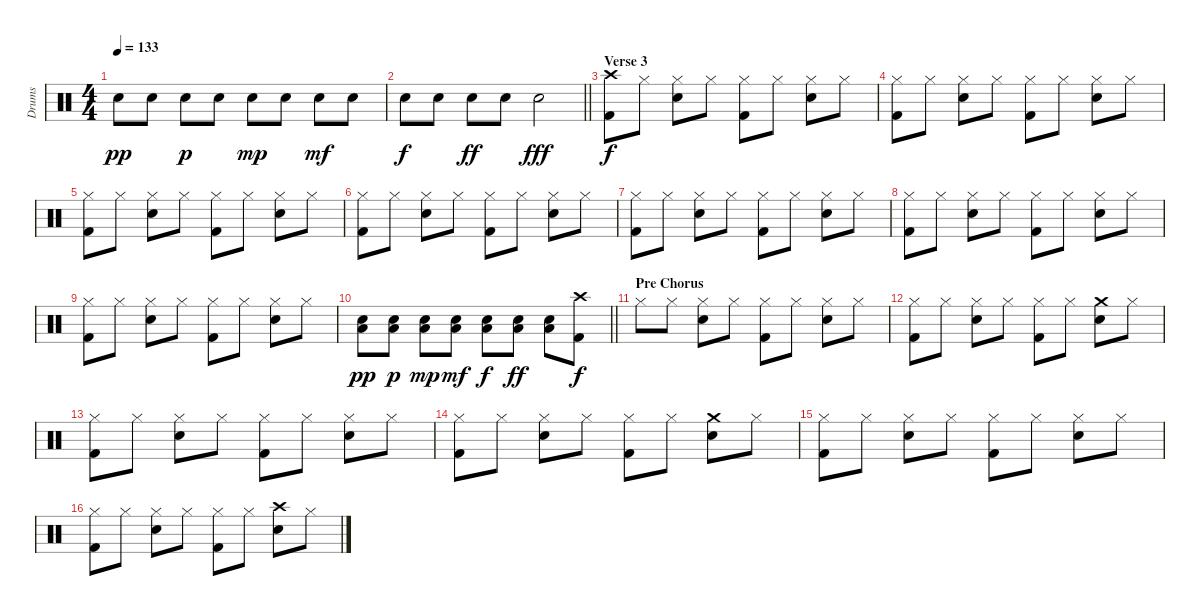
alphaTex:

\track ("Drums" "Drums") {instrument percussion}
\staff {score}
\articulation defaults
\ts (4 4)
\tempo 133
\clef neutral
\ks c "Snare (hit) 2".8{dy pp} "Snare (hit) 2".8 "Snare (hit) 2".8{dy p} "Snare (hit) 2".8 "Snare (hit) 2".8{dy mp} "Snare (hit) 2".8 "Snare (hit) 2".8{dy mf} "Snare (hit) 2".8
|
\barLineRight lightlight "Snare (hit) 2".8{dy f} "Snare (hit) 2".8 "Snare (hit) 2".8{dy ff} "Snare (hit) 2".8 "Snare (hit) 2".2{dy fff}
|
\section ("" "Verse 3")
("Crash high (hit)" "Kick (hit) 2").8{dy f} "Hi-Hat (closed)".8 ("Hi-Hat (closed)" "Snare (hit) 2").8 "Hi-Hat (closed)".8 ("Hi-Hat (closed)" "Kick (hit) 2").8 "Hi-Hat (closed)".8 ("Hi-Hat (closed)" "Snare (hit) 2").8 "Hi-Hat (closed)".8 |
("Hi-Hat (closed)" "Kick (hit) 2").8 "Hi-Hat (closed)".8 ("Hi-Hat (closed)" "Snare (hit) 2").8 "Hi-Hat (closed)".8 ("Hi-Hat (closed)" "Kick (hit) 2").8 "Hi-Hat (closed)".8 ("Hi-Hat (closed)" "Snare (hit) 2").8 "Hi-Hat (closed)".8 |
("Hi-Hat (closed)" "Kick (hit) 2").8 "Hi-Hat (closed)".8 ("Hi-Hat (closed)" "Snare (hit) 2").8 "Hi-Hat (closed)".8 ("Hi-Hat (closed)" "Kick (hit) 2").8 "Hi-Hat (closed)".8 ("Hi-Hat (closed)" "Snare (hit) 2").8 "Hi-Hat (closed)".8 |
("Hi-Hat (closed)" "Kick (hit) 2").8 "Hi-Hat (closed)".8 ("Hi-Hat (closed)" "Snare (hit) 2").8 "Hi-Hat (closed)".8 ("Hi-Hat (closed)" "Kick (hit) 2").8 "Hi-Hat (closed)".8 ("Hi-Hat (closed)" "Snare (hit) 2").8 "Hi-Hat (closed)".8 |
("Hi-Hat (closed)" "Kick (hit) 2").8 "Hi-Hat (closed)".8 ("Hi-Hat (closed)" "Snare (hit) 2").8 "Hi-Hat (closed)".8 ("Hi-Hat (closed)" "Kick (hit) 2").8 "Hi-Hat (closed)".8 ("Hi-Hat (closed)" "Snare (hit) 2").8 "Hi-Hat (closed)".8 |
("Hi-Hat (closed)" "Kick (hit) 2").8 "Hi-Hat (closed)".8 ("Hi-Hat (closed)" "Snare (hit) 2").8 "Hi-Hat (closed)".8 ("Hi-Hat (closed)" "Kick (hit) 2").8 "Hi-Hat (closed)".8 ("Hi-Hat (closed)" "Snare (hit) 2").8 "Hi-Hat (closed)".8 |
("Hi-Hat (closed)" "Kick (hit) 2").8 "Hi-Hat (closed)".8 ("Hi-Hat (closed)" "Snare (hit) 2").8 "Hi-Hat (closed)".8 ("Hi-Hat (closed)" "Kick (hit) 2").8 "Hi-Hat (closed)".8 ("Hi-Hat (closed)" "Snare (hit) 2").8 "Hi-Hat (closed)".8 |
\barLineRight lightlight
("Low Floor Tom (hit)" "Snare (hit) 2").8{dy pp} ("Low Floor Tom (hit)" "Snare (hit) 2").8{dy p} ("Low Floor Tom (hit)" "Snare (hit) 2").8{dy mp} ("Low Floor Tom (hit)" "Snare (hit) 2").8{dy mf} ("Low Floor Tom (hit)" "Snare (hit) 2").8{dy f} ("Low Floor Tom (hit)" "Snare (hit) 2").8{dy ff} ("Low Floor Tom (hit)" "Snare (hit) 2").8 ("Crash high (hit)" "Kick (hit) 2").8{dy f} |
\section ("" "Pre Chorus")
"Hi-Hat (closed)".8 "Hi-Hat (closed)".8 ("Hi-Hat (closed)" "Snare (hit) 2").8 "Hi-Hat (closed)".8 ("Hi-Hat (closed)" "Kick (hit) 2").8 "Hi-Hat (closed)".8 ("Hi-Hat (closed)" "Snare (hit) 2").8 "Hi-Hat (closed)".8 |
("Hi-Hat (closed)" "Kick (hit) 2").8 "Hi-Hat (closed)".8 ("Hi-Hat (closed)" "Snare (hit) 2").8 "Hi-Hat (closed)".8 ("Hi-Hat (closed)" "Kick (hit) 2").8 "Hi-Hat (closed)".8 ("Crash medium (hit)" "Snare (hit) 2").8 "Hi-Hat (closed)".8 |
("Hi-Hat (closed)" "Kick (hit) 2").8 "Hi-Hat (closed)".8 ("Hi-Hat (closed)" "Snare (hit) 2").8 "Hi-Hat (closed)".8 ("Hi-Hat (closed)" "Kick (hit) 2").8 "Hi-Hat (closed)".8 ("Hi-Hat (closed)" "Snare (hit) 2").8 "Hi-Hat (closed)".8 |
("Hi-Hat (closed)" "Kick (hit) 2").8 "Hi-Hat (closed)".8 ("Hi-Hat (closed)" "Snare (hit) 2").8 "Hi-Hat (closed)".8 ("Hi-Hat (closed)" "Kick (hit) 2").8 "Hi-Hat (closed)".8 ("Crash medium (hit)" "Snare (hit) 2").8 "Hi-Hat (closed)".8 |
("Hi-Hat (closed)" "Kick (hit) 2").8 "Hi-Hat (closed)".8 ("Hi-Hat (closed)" "Snare (hit) 2").8 "Hi-Hat (closed)".8 ("Hi-Hat (closed)" "Kick (hit) 2").8 "Hi-Hat (closed)".8 ("Hi-Hat (closed)" "Snare (hit) 2").8 "Hi-Hat (closed)".8 |
("Hi-Hat (closed)" "Kick (hit) 2").8 "Hi-Hat (closed)".8 ("Hi-Hat (closed)" "Snare (hit) 2").8 "Hi-Hat (closed)".8 ("Hi-Hat (closed)" "Kick (hit) 2").8 "Hi-Hat (closed)".8 ("Crash high (hit)" "Snare (hit) 2").8 "Hi-Hat (closed)".8
